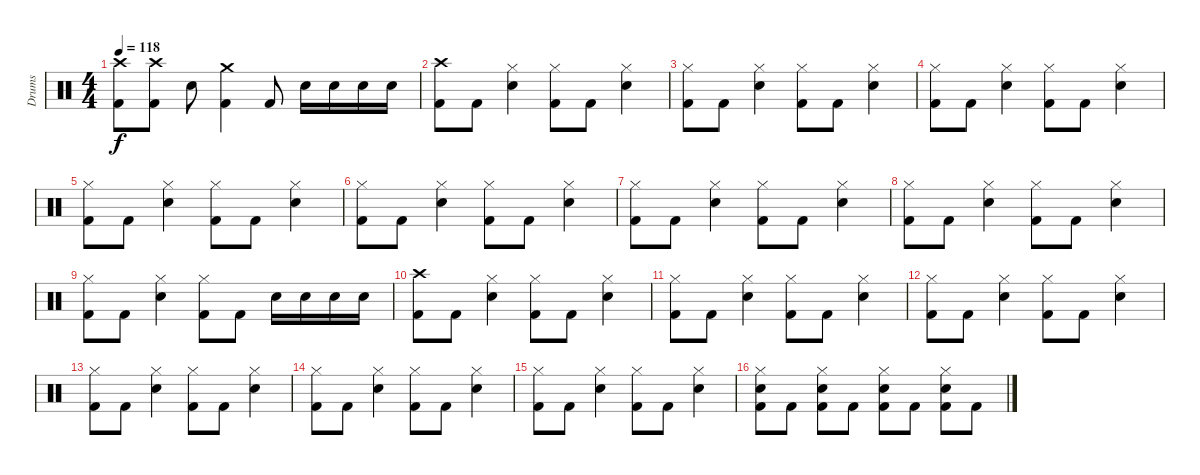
\track ("Drums" "Drums") {instrument percussion}
\staff {score}
\articulation defaults
\ts (4 4)
\tempo 118
\clef neutral
\ks c
("Crash high (hit)" "Kick (hit) 2").8{dy f} ("Crash high (hit)" "Kick (hit) 2").8 "Snare (hit) 2".8 ("Crash medium (hit)" "Kick (hit) 2").4 "Kick (hit) 2".8 "Snare (hit) 2".16 "Snare (hit) 2".16 "Snare (hit) 2".16 "Snare (hit) 2".16 |
("Crash high (hit)" "Kick (hit) 2").8 "Kick (hit) 2".8 ("Hi-Hat (closed)" "Snare (hit) 2").4 ("Hi-Hat (closed)" "Kick (hit) 2").8 "Kick (hit) 2".8 ("Hi-Hat (closed)" "Snare (hit) 2").4 |
("Hi-Hat (closed)" "Kick (hit) 2").8 "Kick (hit) 2".8 ("Hi-Hat (closed)" "Snare (hit) 2").4 ("Hi-Hat (closed)" "Kick (hit) 2").8 "Kick (hit) 2".8 ("Hi-Hat (closed)" "Snare (hit) 2").4 |
("Hi-Hat (closed)" "Kick (hit) 2").8 "Kick (hit) 2".8 ("Hi-Hat (closed)" "Snare (hit) 2").4 ("Hi-Hat (closed)" "Kick (hit) 2").8 "Kick (hit) 2".8 ("Hi-Hat (closed)" "Snare (hit) 2").4 |
("Hi-Hat (closed)" "Kick (hit) 2").8 "Kick (hit) 2".8 ("Hi-Hat (closed)" "Snare (hit) 2").4 ("Hi-Hat (closed)" "Kick (hit) 2").8 "Kick (hit) 2".8 ("Hi-Hat (closed)" "Snare (hit) 2").4 |
("Hi-Hat (closed)" "Kick (hit) 2").8 "Kick (hit) 2".8 ("Hi-Hat (closed)" "Snare (hit) 2").4 ("Hi-Hat (closed)" "Kick (hit) 2").8 "Kick (hit) 2".8 ("Hi-Hat (closed)" "Snare (hit) 2").4 |
("Hi-Hat (closed)" "Kick (hit) 2").8 "Kick (hit) 2".8 ("Hi-Hat (closed)" "Snare (hit) 2").4 ("Hi-Hat (closed)" "Kick (hit) 2").8 "Kick (hit) 2".8 ("Hi-Hat (closed)" "Snare (hit) 2").4 |
("Hi-Hat (closed)" "Kick (hit) 2").8 "Kick (hit) 2".8 ("Hi-Hat (closed)" "Snare (hit) 2").4 ("Hi-Hat (closed)" "Kick (hit) 2").8 "Kick (hit) 2".8 ("Hi-Hat (closed)" "Snare (hit) 2").4 |
("Hi-Hat (closed)" "Kick (hit) 2").8 "Kick (hit) 2".8 ("Hi-Hat (closed)" "Snare (hit) 2").4 ("Hi-Hat (closed)" "Kick (hit) 2").8 "Kick (hit) 2".8 "Snare (hit) 2".16 "Snare (hit) 2".16 "Snare (hit) 2".16 "Snare (hit) 2".16 |
("Crash high (hit)" "Kick (hit) 2").8 "Kick (hit) 2".8 ("Hi-Hat (closed)" "Snare (hit) 2").4 ("Hi-Hat (closed)" "Kick (hit) 2").8 "Kick (hit) 2".8 ("Hi-Hat (closed)" "Snare (hit) 2").4 |
("Hi-Hat (closed)" "Kick (hit) 2").8 "Kick (hit) 2".8 ("Hi-Hat (closed)" "Snare (hit) 2").4 ("Hi-Hat (closed)" "Kick (hit) 2").8 "Kick (hit) 2".8 ("Hi-Hat (closed)" "Snare (hit) 2").4 |
("Hi-Hat (closed)" "Kick (hit) 2").8 "Kick (hit) 2".8 ("Hi-Hat (closed)" "Snare (hit) 2").4 ("Hi-Hat (closed)" "Kick (hit) 2").8 "Kick (hit) 2".8 ("Hi-Hat (closed)" "Snare (hit) 2").4 |
("Hi-Hat (closed)" "Kick (hit) 2").8 "Kick (hit) 2".8 ("Hi-Hat (closed)" "Snare (hit) 2").4 ("Hi-Hat (closed)" "Kick (hit) 2").8 "Kick (hit) 2".8 ("Hi-Hat (closed)" "Snare (hit) 2").4 |
("Hi-Hat (closed)" "Kick (hit) 2").8 "Kick (hit) 2".8 ("Hi-Hat (closed)" "Snare (hit) 2").4 ("Hi-Hat (closed)" "Kick (hit) 2").8 "Kick (hit) 2".8 ("Hi-Hat (closed)" "Snare (hit) 2").4 |
("Hi-Hat (closed)" "Kick (hit) 2").8 "Kick (hit) 2".8 ("Hi-Hat (closed)" "Snare (hit) 2").4 ("Hi-Hat (closed)" "Kick (hit) 2").8 "Kick (hit) 2".8 ("Hi-Hat (closed)" "Snare (hit) 2").4 |
("Hi-Hat (closed)" "Snare (hit) 2" "Kick (hit) 2").8 "Kick (hit) 2".8 ("Hi-Hat (closed)" "Snare (hit) 2" "Kick (hit) 2").8 "Kick (hit) 2".8 ("Hi-Hat (closed)" "Snare (hit) 2" "Kick (hit) 2").8 "Kick (hit) 2".8 ("Hi-Hat (closed)" "Snare (hit) 2" "Kick (hit) 2").8 "Kick (hit) 2".8
